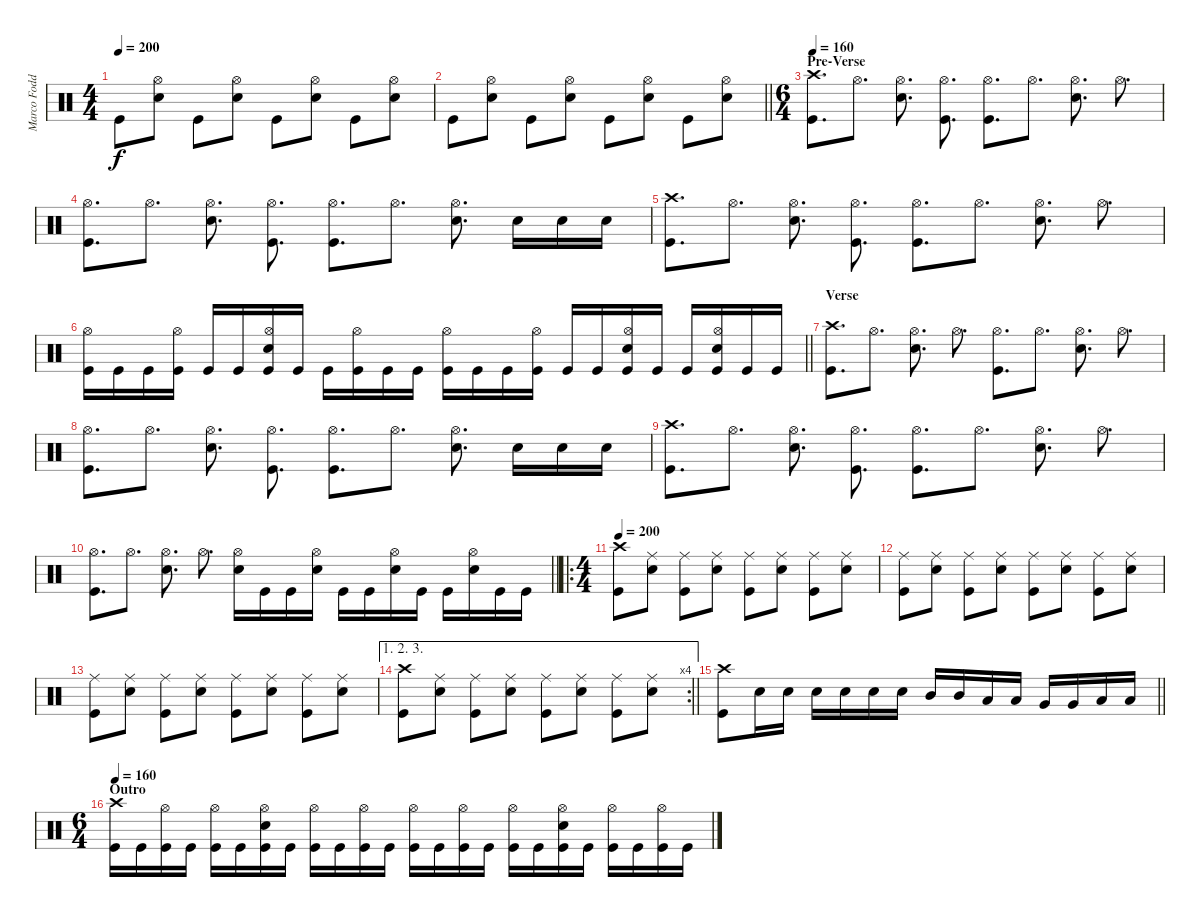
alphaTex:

\track ("Marco Foddis" "Marco Fodd") {instrument percussion}
\staff {score}
\articulation defaults
\ts (4 4)
\tempo 200
\clef neutral
\ks c "Kick (hit)".8{dy f}
("Hi-Hat (open)" "Snare (hit) 2").8 "Kick (hit)".8 ("Hi-Hat (open)" "Snare (hit) 2").8 "Kick (hit)".8 ("Hi-Hat (open)" "Snare (hit) 2").8 "Kick (hit)".8 ("Hi-Hat (open)" "Snare (hit) 2").8 |
\barLineRight lightlight "Kick (hit)".8
("Hi-Hat (open)" "Snare (hit) 2").8 "Kick (hit)".8 ("Hi-Hat (open)" "Snare (hit) 2").8 "Kick (hit)".8 ("Hi-Hat (open)" "Snare (hit) 2").8 "Kick (hit)".8 ("Hi-Hat (open)" "Snare (hit) 2").8 |
\ts (6 4)
\section ("" "Pre-Verse")
\tempo 160
("Crash high (hit)" "Kick (hit)").8{d} "Hi-Hat (open)".8{d} ("Hi-Hat (open)" "Snare (hit) 2").8{d} ("Hi-Hat (open)" "Kick (hit)").8{d} ("Hi-Hat (open)" "Kick (hit)").8{d} "Hi-Hat (open)".8{d} ("Hi-Hat (open)" "Snare (hit) 2").8{d} "Hi-Hat (open)".8{d} |
("Hi-Hat (open)" "Kick (hit)").8{d} "Hi-Hat (open)".8{d} ("Hi-Hat (open)" "Snare (hit) 2").8{d} ("Hi-Hat (open)" "Kick (hit)").8{d} ("Hi-Hat (open)" "Kick (hit)").8{d} "Hi-Hat (open)".8{d} ("Hi-Hat (open)" "Snare (hit) 2").8{d} "Snare (hit) 2".16 "Snare (hit) 2".16 "Snare (hit) 2".16 |
("Crash high (hit)" "Kick (hit)").8{d} "Hi-Hat (open)".8{d} ("Hi-Hat (open)" "Snare (hit) 2").8{d} ("Hi-Hat (open)" "Kick (hit)").8{d} ("Hi-Hat (open)" "Kick (hit)").8{d} "Hi-Hat (open)".8{d} ("Hi-Hat (open)" "Snare (hit) 2").8{d} "Hi-Hat (open)".8{d} |
\barLineRight lightlight
("Hi-Hat (open)" "Kick (hit)").16 "Kick (hit)".16 "Kick (hit)".16 ("Hi-Hat (open)" "Kick (hit)").16 "Kick (hit)".16 "Kick (hit)".16 ("Hi-Hat (open)" "Snare (hit) 2" "Kick (hit)").16 "Kick (hit)".16 "Kick (hit)".16 ("Hi-Hat (open)" "Kick (hit)").16 "Kick (hit)".16 "Kick (hit)".16 ("Hi-Hat (open)" "Kick (hit)").16 "Kick (hit)".16 "Kick (hit)".16 ("Hi-Hat (open)" "Kick (hit)").16 "Kick (hit)".16 "Kick (hit)".16 ("Hi-Hat (open)" "Snare (hit) 2" "Kick (hit)").16 "Kick (hit)".16 "Kick (hit)".16 ("Hi-Hat (open)" "Snare (hit) 2" "Kick (hit)").16 "Kick (hit)".16 "Kick (hit)".16 |
\section ("" "Verse")
("Crash high (hit)" "Kick (hit)").8{d} "Hi-Hat (open)".8{d} ("Hi-Hat (open)" "Snare (hit) 2").8{d} "Hi-Hat (open)".8{d} ("Hi-Hat (open)" "Kick (hit)").8{d} "Hi-Hat (open)".8{d} ("Hi-Hat (open)" "Snare (hit) 2").8{d} "Hi-Hat (open)".8{d} |
("Hi-Hat (open)" "Kick (hit)").8{d} "Hi-Hat (open)".8{d} ("Hi-Hat (open)" "Snare (hit) 2").8{d} ("Hi-Hat (open)" "Kick (hit)").8{d} ("Hi-Hat (open)" "Kick (hit)").8{d} "Hi-Hat (open)".8{d} ("Hi-Hat (open)" "Snare (hit) 2").8{d} "Snare (hit) 2".16 "Snare (hit) 2".16 "Snare (hit) 2".16 |
("Crash high (hit)" "Kick (hit)").8{d} "Hi-Hat (open)".8{d} ("Hi-Hat (open)" "Snare (hit) 2").8{d} ("Hi-Hat (open)" "Kick (hit)").8{d} ("Hi-Hat (open)" "Kick (hit)").8{d} "Hi-Hat (open)".8{d} ("Hi-Hat (open)" "Snare (hit) 2").8{d} "Hi-Hat (open)".8{d} |
\barLineRight lightlight
("Hi-Hat (open)" "Kick (hit)").8{d} "Hi-Hat (open)".8{d} ("Hi-Hat (open)" "Snare (hit) 2").8{d} "Hi-Hat (open)".8{d} ("Hi-Hat (open)" "Snare (hit) 2").16 "Kick (hit)".16 "Kick (hit)".16 ("Hi-Hat (open)" "Snare (hit) 2").16 "Kick (hit)".16 "Kick (hit)".16 ("Hi-Hat (open)" "Snare (hit) 2").16 "Kick (hit)".16 "Kick (hit)".16 ("Hi-Hat (open)" "Snare (hit) 2").16 "Kick (hit)".16 "Kick (hit)".16 |
\ro
\ts (4 4)
\tempo 200
("Crash high (hit)" "Kick (hit)").8 ("Ride (middle)" "Snare (hit) 2").8 ("Ride (middle)" "Kick (hit)").8 ("Ride (middle)" "Snare (hit) 2").8 ("Ride (middle)" "Kick (hit)").8 ("Ride (middle)" "Snare (hit) 2").8 ("Ride (middle)" "Kick (hit)").8 ("Ride (middle)" "Snare (hit) 2").8 |
("Ride (middle)" "Kick (hit)").8 ("Ride (middle)" "Snare (hit) 2").8 ("Ride (middle)" "Kick (hit)").8 ("Ride (middle)" "Snare (hit) 2").8 ("Ride (middle)" "Kick (hit)").8 ("Ride (middle)" "Snare (hit) 2").8 ("Ride (middle)" "Kick (hit)").8 ("Ride (middle)" "Snare (hit) 2").8 |
("Ride (middle)" "Kick (hit)").8 ("Ride (middle)" "Snare (hit) 2").8 ("Ride (middle)" "Kick (hit)").8 ("Ride (middle)" "Snare (hit) 2").8 ("Ride (middle)" "Kick (hit)").8 ("Ride (middle)" "Snare (hit) 2").8 ("Ride (middle)" "Kick (hit)").8 ("Ride (middle)" "Snare (hit) 2").8 |
\ae (1 2 3)
\rc 4
\barLineRight lightlight
("Crash high (hit)" "Kick (hit)").8 ("Ride (middle)" "Snare (hit) 2").8 ("Ride (middle)" "Kick (hit)").8 ("Ride (middle)" "Snare (hit) 2").8 ("Ride (middle)" "Kick (hit)").8 ("Ride (middle)" "Snare (hit) 2").8 ("Ride (middle)" "Kick (hit)").8 ("Ride (middle)" "Snare (hit) 2").8 |
\barLineRight lightlight
("Crash high (hit)" "Kick (hit)").8 "Snare (hit) 2".16 "Snare (hit) 2".16 "Snare (hit) 2".16 "Snare (hit) 2".16 "Snare (hit) 2".16 "Snare (hit) 2".16 "Mid Tom (hit)".16 "Mid Tom (hit)".16 "Low Tom (hit)".16 "Low Tom (hit)".16 "Very Low Tom (hit)".16 "Very Low Tom (hit)".16 "Low Floor Tom (hit)".16 "Low Floor Tom (hit)".16 |
\ts (6 4)
\section ("" "Outro")
\tempo 160
("Crash high (hit)" "Kick (hit)").16 "Kick (hit)".16 ("Hi-Hat (open)" "Kick (hit)").16 "Kick (hit)".16 ("Hi-Hat (open)" "Kick (hit)").16 "Kick (hit)".16 ("Hi-Hat (open)" "Snare (hit) 2" "Kick (hit)").16 "Kick (hit)".16 ("Hi-Hat (open)" "Kick (hit)").16 "Kick (hit)".16 ("Hi-Hat (open)" "Kick (hit)").16 "Kick (hit)".16 ("Hi-Hat (open)" "Kick (hit)").16 "Kick (hit)".16 ("Hi-Hat (open)" "Kick (hit)").16 "Kick (hit)".16 ("Hi-Hat (open)" "Kick (hit)").16 "Kick (hit)".16 ("Hi-Hat (open)" "Snare (hit) 2" "Kick (hit)").16 "Kick (hit)".16 ("Hi-Hat (open)" "Kick (hit)").16 "Kick (hit)".16 ("Hi-Hat (open)" "Kick (hit)").16 "Kick (hit)".16
